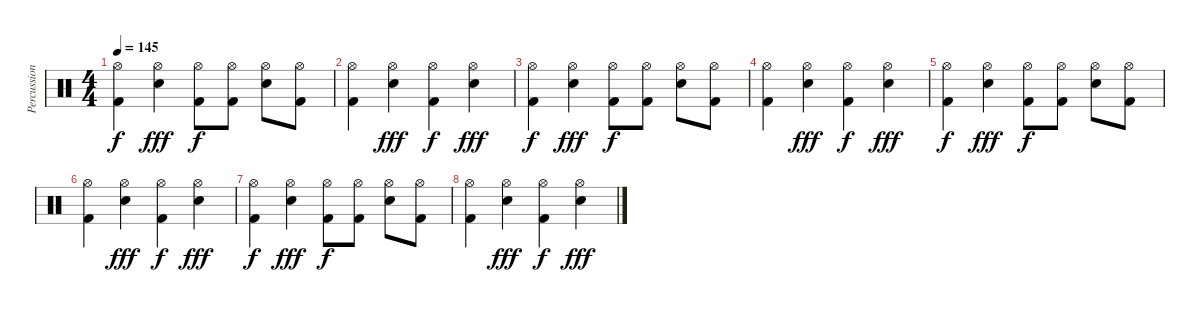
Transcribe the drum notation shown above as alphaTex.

\track ("Percussion" "Percussion") {instrument percussion}
\staff {score}
\articulation defaults
\ts (4 4)
\tempo 145
\clef neutral
\ks c
("Hi-Hat (open)" "Kick (hit) 2").4{dy f} ("Hi-Hat (open)" "Snare (hit) 2").4{dy fff} ("Hi-Hat (open)" "Kick (hit) 2").8{dy f} ("Hi-Hat (open)" "Kick (hit) 2").8 ("Hi-Hat (open)" "Snare (hit) 2").8 ("Hi-Hat (open)" "Kick (hit) 2").8 |
("Hi-Hat (open)" "Kick (hit) 2").4 ("Hi-Hat (open)" "Snare (hit) 2").4{dy fff} ("Hi-Hat (open)" "Kick (hit) 2").4{dy f} ("Hi-Hat (open)" "Snare (hit) 2").4{dy fff} |
("Hi-Hat (open)" "Kick (hit) 2").4{dy f} ("Hi-Hat (open)" "Snare (hit) 2").4{dy fff} ("Hi-Hat (open)" "Kick (hit) 2").8{dy f} ("Hi-Hat (open)" "Kick (hit) 2").8 ("Hi-Hat (open)" "Snare (hit) 2").8 ("Hi-Hat (open)" "Kick (hit) 2").8 |
("Hi-Hat (open)" "Kick (hit) 2").4 ("Hi-Hat (open)" "Snare (hit) 2").4{dy fff} ("Hi-Hat (open)" "Kick (hit) 2").4{dy f} ("Hi-Hat (open)" "Snare (hit) 2").4{dy fff} |
("Hi-Hat (open)" "Kick (hit) 2").4{dy f} ("Hi-Hat (open)" "Snare (hit) 2").4{dy fff} ("Hi-Hat (open)" "Kick (hit) 2").8{dy f} ("Hi-Hat (open)" "Kick (hit) 2").8 ("Hi-Hat (open)" "Snare (hit) 2").8 ("Hi-Hat (open)" "Kick (hit) 2").8 |
("Hi-Hat (open)" "Kick (hit) 2").4 ("Hi-Hat (open)" "Snare (hit) 2").4{dy fff} ("Hi-Hat (open)" "Kick (hit) 2").4{dy f} ("Hi-Hat (open)" "Snare (hit) 2").4{dy fff} |
("Hi-Hat (open)" "Kick (hit) 2").4{dy f} ("Hi-Hat (open)" "Snare (hit) 2").4{dy fff} ("Hi-Hat (open)" "Kick (hit) 2").8{dy f} ("Hi-Hat (open)" "Kick (hit) 2").8 ("Hi-Hat (open)" "Snare (hit) 2").8 ("Hi-Hat (open)" "Kick (hit) 2").8 |
("Hi-Hat (open)" "Kick (hit) 2").4 ("Hi-Hat (open)" "Snare (hit) 2").4{dy fff} ("Hi-Hat (open)" "Kick (hit) 2").4{dy f} ("Hi-Hat (open)" "Snare (hit) 2").4{dy fff}
